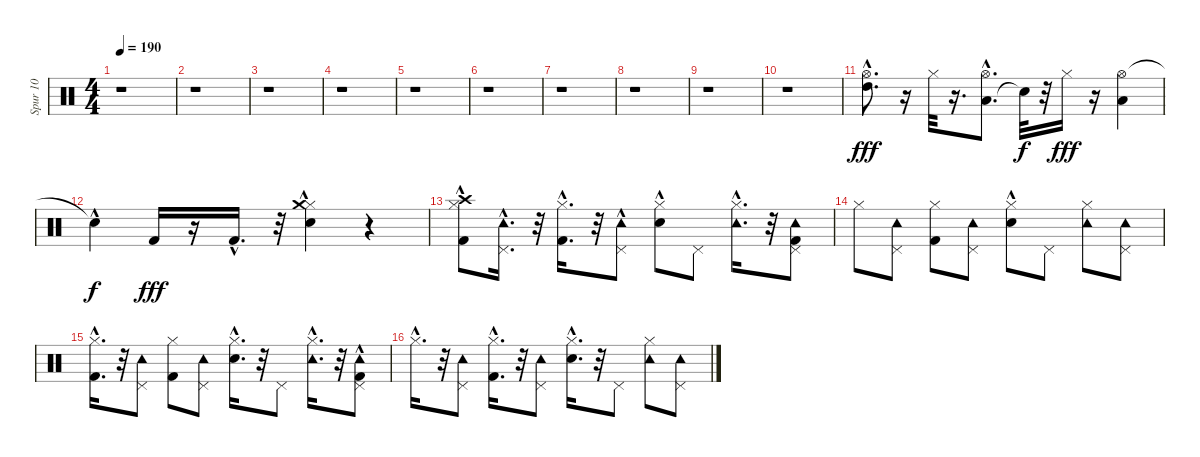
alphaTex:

\track ("Spur 10" "Spur 10") {instrument percussion}
\staff {score}
\articulation defaults
\ts (4 4)
\tempo 190
\clef neutral
\ks c
r.1{dy fff} |
r.1 |
r.1 |
r.1 |
r.1 |
r.1 |
r.1 |
r.1 |
r.1 |
r.1 |
("High Tom (hit)" "Hi-Hat (open)"{hac}).8{d} r.16 "Hi-Hat (closed)".32 r.16{d} ("Low Tom (hit)" "Hi-Hat (open)"{hac}).8{d} "Snare (hit)"{t}.32{dy f} r.32 "Hi-Hat (closed)".16{dy fff} r.16 ("Hi-Hat (open)" "Low Floor Tom (hit)").4 |
"Snare (hit)"{hac t}.4{dy f} "Kick (hit) 2".16{dy fff} r.16 "Kick (hit) 2"{hac}.16{d} r.32 ("Electric Snare (hit)" "Hi-Hat (closed)"{hac} "Crash medium (hit)").4 r.4 |
("Crash high (hit)"{hac} "Kick (hit) 2" "Hi-Hat (closed)").8 ("Tambourine (hit)" "Pedal Hi-Hat (hit)"{hac}).16{d} r.32 ("Hi-Hat (closed)"{hac} "Kick (hit) 2").16{d} r.32 ("Tambourine (hit)"{hac} "Pedal Hi-Hat (hit)").8 ("Hi-Hat (closed)" "Electric Snare (hit)"{hac}).8 "Pedal Hi-Hat (hit)".8 ("Tambourine (hit)" "Hi-Hat (closed)"{hac}).16{d} r.32 ("Tambourine (hit)" "Pedal Hi-Hat (hit)" "Kick (hit) 2").8 |
"Hi-Hat (closed)".8 ("Tambourine (hit)" "Pedal Hi-Hat (hit)").8 ("Hi-Hat (closed)" "Kick (hit) 2").8 ("Tambourine (hit)" "Pedal Hi-Hat (hit)").8 ("Hi-Hat (closed)" "Electric Snare (hit)"{hac}).8 "Pedal Hi-Hat (hit)".8 ("Tambourine (hit)" "Hi-Hat (closed)").8 ("Tambourine (hit)" "Pedal Hi-Hat (hit)").8 |
("Hi-Hat (closed)"{hac} "Kick (hit) 2").16{d} r.32 ("Tambourine (hit)" "Pedal Hi-Hat (hit)").8 ("Hi-Hat (closed)" "Kick (hit) 2").8 ("Tambourine (hit)" "Pedal Hi-Hat (hit)").8 ("Hi-Hat (closed)"{hac} "Electric Snare (hit)"{hac}).16{d} r.32 "Pedal Hi-Hat (hit)".8 ("Tambourine (hit)" "Hi-Hat (closed)"{hac}).16{d} r.32 ("Tambourine (hit)"{hac} "Pedal Hi-Hat (hit)" "Kick (hit) 2").8 |
"Hi-Hat (closed)"{hac}.16{d} r.32 ("Tambourine (hit)" "Pedal Hi-Hat (hit)").8 ("Kick (hit) 2" "Hi-Hat (closed)"{hac}).16{d} r.32 ("Tambourine (hit)" "Pedal Hi-Hat (hit)").8 ("Hi-Hat (closed)"{hac} "Electric Snare (hit)"{hac}).16{d} r.32 "Pedal Hi-Hat (hit)".8 ("Tambourine (hit)" "Hi-Hat (closed)").8 ("Tambourine (hit)" "Pedal Hi-Hat (hit)").8
